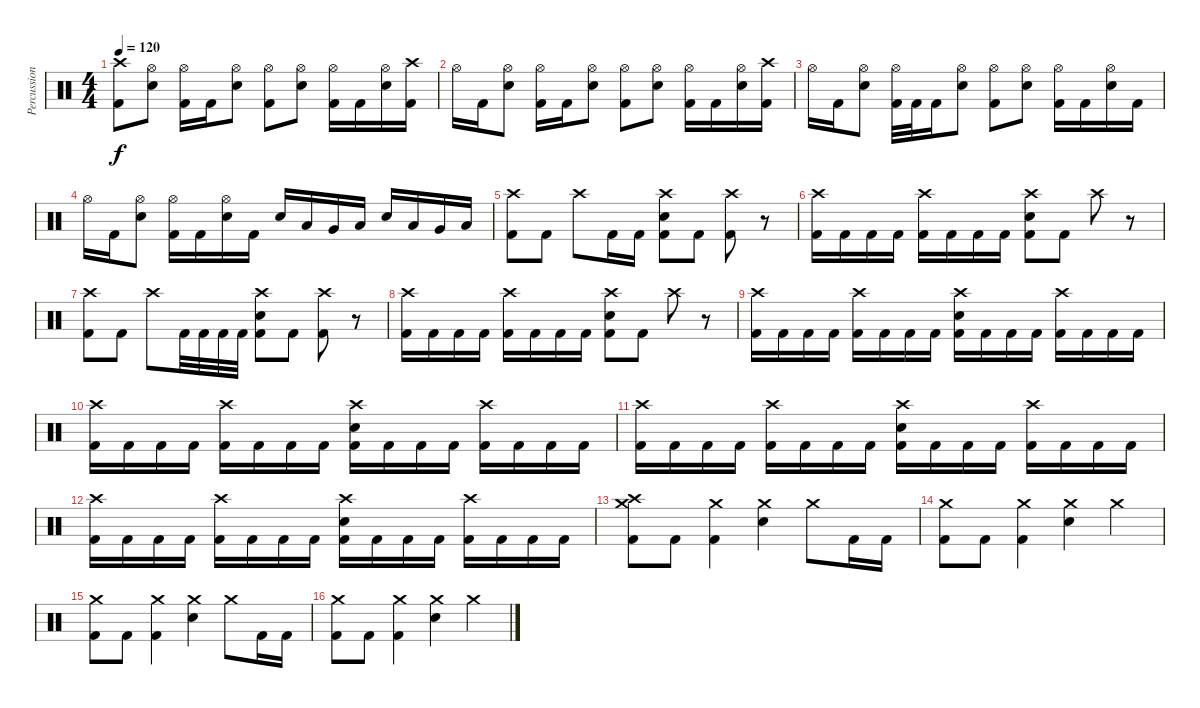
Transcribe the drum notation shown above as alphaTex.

\track ("Percussion" "Percussion") {instrument percussion}
\staff {score}
\articulation defaults
\ts (4 4)
\tempo 120
\clef neutral
\ks c
("Crash high (hit)" "Kick (hit) 2").8{dy f} ("Hi-Hat (open)" "Electric Snare (hit)").8 ("Hi-Hat (open)" "Kick (hit) 2").16 "Kick (hit) 2".16 ("Hi-Hat (open)" "Electric Snare (hit)").8 ("Hi-Hat (open)" "Kick (hit) 2").8 ("Hi-Hat (open)" "Electric Snare (hit)").8 ("Hi-Hat (open)" "Kick (hit) 2").16 "Kick (hit) 2".16 ("Hi-Hat (open)" "Electric Snare (hit)").16 ("Crash high (hit)" "Kick (hit) 2").16 |
"Hi-Hat (open)".16 "Kick (hit) 2".16 ("Hi-Hat (open)" "Electric Snare (hit)").8 ("Hi-Hat (open)" "Kick (hit) 2").16 "Kick (hit) 2".16 ("Hi-Hat (open)" "Electric Snare (hit)").8 ("Hi-Hat (open)" "Kick (hit) 2").8 ("Hi-Hat (open)" "Electric Snare (hit)").8 ("Hi-Hat (open)" "Kick (hit) 2").16 "Kick (hit) 2".16 ("Hi-Hat (open)" "Electric Snare (hit)").16 ("Crash high (hit)" "Kick (hit) 2").16 |
"Hi-Hat (open)".16 "Kick (hit) 2".16 ("Hi-Hat (open)" "Electric Snare (hit)").8 ("Hi-Hat (open)" "Kick (hit) 2").32 "Kick (hit) 2".32 "Kick (hit) 2".16 ("Hi-Hat (open)" "Electric Snare (hit)").8 ("Hi-Hat (open)" "Kick (hit) 2").8 ("Hi-Hat (open)" "Electric Snare (hit)").8 ("Hi-Hat (open)" "Kick (hit) 2").16 "Kick (hit) 2".16 ("Hi-Hat (open)" "Electric Snare (hit)").16 "Kick (hit) 2".16 |
"Hi-Hat (open)".16 "Kick (hit) 2".16 ("Hi-Hat (open)" "Electric Snare (hit)").8 ("Hi-Hat (open)" "Kick (hit) 2").16 "Kick (hit) 2".16 ("Hi-Hat (open)" "Electric Snare (hit)").16 "Kick (hit) 2".16 "Electric Snare (hit)".16 "Low Tom (hit)".16 "Very Low Tom (hit)".16 "Low Floor Tom (hit)".16 "Electric Snare (hit)".16 "Low Tom (hit)".16 "Very Low Tom (hit)".16 "Low Floor Tom (hit)".16 |
("Crash high (hit)" "Kick (hit) 2").8 "Kick (hit) 2".8 "Crash high (hit)".8 "Kick (hit) 2".16 "Kick (hit) 2".16 ("Crash high (hit)" "Electric Snare (hit)" "Kick (hit) 2").8 "Kick (hit) 2".8 ("Crash high (hit)" "Kick (hit) 2").8 r.8 |
("Crash high (hit)" "Kick (hit) 2").16 "Kick (hit) 2".16 "Kick (hit) 2".16 "Kick (hit) 2".16 ("Crash high (hit)" "Kick (hit) 2").16 "Kick (hit) 2".16 "Kick (hit) 2".16 "Kick (hit) 2".16 ("Crash high (hit)" "Electric Snare (hit)" "Kick (hit) 2").8 "Kick (hit) 2".8 "Crash high (hit)".8 r.8 |
("Crash high (hit)" "Kick (hit) 2").8 "Kick (hit) 2".8 "Crash high (hit)".8 "Kick (hit) 2".32 "Kick (hit) 2".32 "Kick (hit) 2".32 "Kick (hit) 2".32 ("Crash high (hit)" "Electric Snare (hit)" "Kick (hit) 2").8 "Kick (hit) 2".8 ("Crash high (hit)" "Kick (hit) 2").8 r.8 |
("Crash high (hit)" "Kick (hit) 2").16 "Kick (hit) 2".16 "Kick (hit) 2".16 "Kick (hit) 2".16 ("Crash high (hit)" "Kick (hit) 2").16 "Kick (hit) 2".16 "Kick (hit) 2".16 "Kick (hit) 2".16 ("Crash high (hit)" "Electric Snare (hit)" "Kick (hit) 2").8 "Kick (hit) 2".8 "Crash high (hit)".8 r.8 |
("Crash high (hit)" "Kick (hit) 2").16 "Kick (hit) 2".16 "Kick (hit) 2".16 "Kick (hit) 2".16 ("Crash high (hit)" "Kick (hit) 2").16 "Kick (hit) 2".16 "Kick (hit) 2".16 "Kick (hit) 2".16 ("Crash high (hit)" "Electric Snare (hit)" "Kick (hit) 2").16 "Kick (hit) 2".16 "Kick (hit) 2".16 "Kick (hit) 2".16 ("Crash high (hit)" "Kick (hit) 2").16 "Kick (hit) 2".16 "Kick (hit) 2".16 "Kick (hit) 2".16 |
("Crash high (hit)" "Kick (hit) 2").16 "Kick (hit) 2".16 "Kick (hit) 2".16 "Kick (hit) 2".16 ("Crash high (hit)" "Kick (hit) 2").16 "Kick (hit) 2".16 "Kick (hit) 2".16 "Kick (hit) 2".16 ("Crash high (hit)" "Electric Snare (hit)" "Kick (hit) 2").16 "Kick (hit) 2".16 "Kick (hit) 2".16 "Kick (hit) 2".16 ("Crash high (hit)" "Kick (hit) 2").16 "Kick (hit) 2".16 "Kick (hit) 2".16 "Kick (hit) 2".16 |
("Crash high (hit)" "Kick (hit) 2").16 "Kick (hit) 2".16 "Kick (hit) 2".16 "Kick (hit) 2".16 ("Crash high (hit)" "Kick (hit) 2").16 "Kick (hit) 2".16 "Kick (hit) 2".16 "Kick (hit) 2".16 ("Crash high (hit)" "Electric Snare (hit)" "Kick (hit) 2").16 "Kick (hit) 2".16 "Kick (hit) 2".16 "Kick (hit) 2".16 ("Crash high (hit)" "Kick (hit) 2").16 "Kick (hit) 2".16 "Kick (hit) 2".16 "Kick (hit) 2".16 |
("Crash high (hit)" "Kick (hit) 2").16 "Kick (hit) 2".16 "Kick (hit) 2".16 "Kick (hit) 2".16 ("Crash high (hit)" "Kick (hit) 2").16 "Kick (hit) 2".16 "Kick (hit) 2".16 "Kick (hit) 2".16 ("Crash high (hit)" "Electric Snare (hit)" "Kick (hit) 2").16 "Kick (hit) 2".16 "Kick (hit) 2".16 "Kick (hit) 2".16 ("Crash high (hit)" "Kick (hit) 2").16 "Kick (hit) 2".16 "Kick (hit) 2".16 "Kick (hit) 2".16 |
("Crash high (hit)" "Crash medium (hit)" "Kick (hit) 2").8 "Kick (hit) 2".8 ("Crash medium (hit)" "Kick (hit) 2").4 ("Crash medium (hit)" "Electric Snare (hit)").4 "Crash medium (hit)".8 "Kick (hit) 2".16 "Kick (hit) 2".16 |
("Crash medium (hit)" "Kick (hit) 2").8 "Kick (hit) 2".8 ("Crash medium (hit)" "Kick (hit) 2").4 ("Crash medium (hit)" "Electric Snare (hit)").4 "Crash medium (hit)".4 |
("Crash medium (hit)" "Kick (hit) 2").8 "Kick (hit) 2".8 ("Crash medium (hit)" "Kick (hit) 2").4 ("Crash medium (hit)" "Electric Snare (hit)").4 "Crash medium (hit)".8 "Kick (hit) 2".16 "Kick (hit) 2".16 |
("Crash medium (hit)" "Kick (hit) 2").8 "Kick (hit) 2".8 ("Crash medium (hit)" "Kick (hit) 2").4 ("Crash medium (hit)" "Electric Snare (hit)").4 "Crash medium (hit)".4
